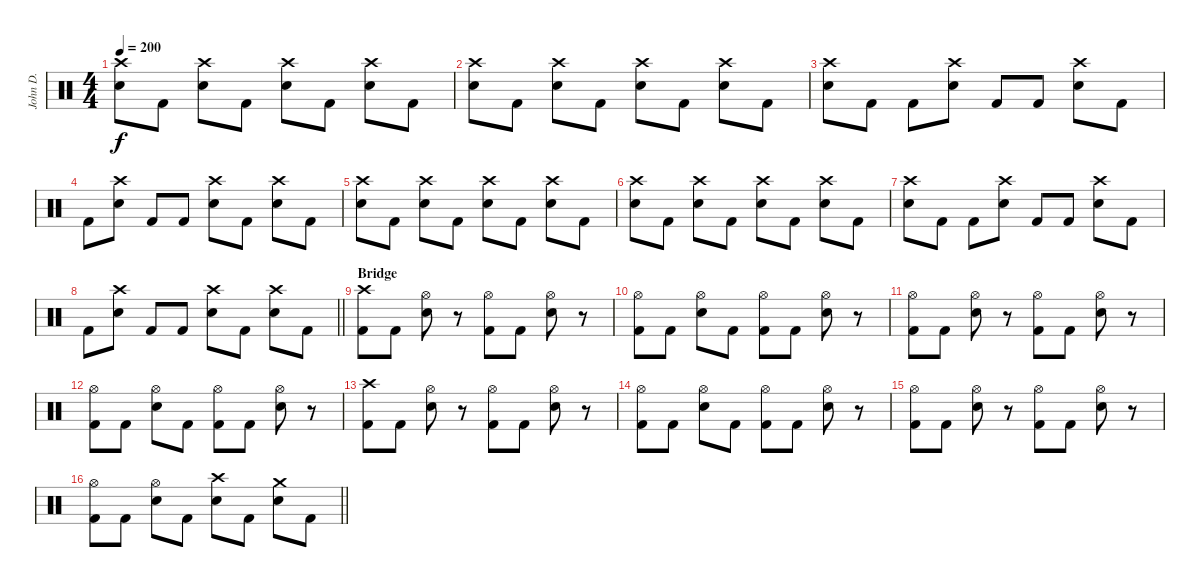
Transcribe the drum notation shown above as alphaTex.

\track ("John D." "John D.") {instrument percussion}
\staff {score}
\articulation defaults
\ts (4 4)
\tempo 200
\clef neutral
\ks c
("Crash high (hit)" "Snare (hit) 2").8{dy f} "Kick (hit) 2".8 ("Crash high (hit)" "Snare (hit) 2").8 "Kick (hit) 2".8 ("Crash high (hit)" "Snare (hit) 2").8 "Kick (hit) 2".8 ("Crash high (hit)" "Snare (hit) 2").8 "Kick (hit) 2".8 |
("Crash high (hit)" "Snare (hit) 2").8 "Kick (hit) 2".8 ("Crash high (hit)" "Snare (hit) 2").8 "Kick (hit) 2".8 ("Crash high (hit)" "Snare (hit) 2").8 "Kick (hit) 2".8 ("Crash high (hit)" "Snare (hit) 2").8 "Kick (hit) 2".8 |
("Crash high (hit)" "Snare (hit) 2").8 "Kick (hit) 2".8 "Kick (hit) 2".8 ("Crash high (hit)" "Snare (hit) 2").8 "Kick (hit) 2".8 "Kick (hit) 2".8 ("Crash high (hit)" "Snare (hit) 2").8 "Kick (hit) 2".8 |
"Kick (hit) 2".8 ("Crash high (hit)" "Snare (hit) 2").8 "Kick (hit) 2".8 "Kick (hit) 2".8 ("Crash high (hit)" "Snare (hit) 2").8 "Kick (hit) 2".8 ("Crash high (hit)" "Snare (hit) 2").8 "Kick (hit) 2".8 |
("Crash high (hit)" "Snare (hit) 2").8 "Kick (hit) 2".8 ("Crash high (hit)" "Snare (hit) 2").8 "Kick (hit) 2".8 ("Crash high (hit)" "Snare (hit) 2").8 "Kick (hit) 2".8 ("Crash high (hit)" "Snare (hit) 2").8 "Kick (hit) 2".8 |
("Crash high (hit)" "Snare (hit) 2").8 "Kick (hit) 2".8 ("Crash high (hit)" "Snare (hit) 2").8 "Kick (hit) 2".8 ("Crash high (hit)" "Snare (hit) 2").8 "Kick (hit) 2".8 ("Crash high (hit)" "Snare (hit) 2").8 "Kick (hit) 2".8 |
("Crash high (hit)" "Snare (hit) 2").8 "Kick (hit) 2".8 "Kick (hit) 2".8 ("Crash high (hit)" "Snare (hit) 2").8 "Kick (hit) 2".8 "Kick (hit) 2".8 ("Crash high (hit)" "Snare (hit) 2").8 "Kick (hit) 2".8 |
\barLineRight lightlight "Kick (hit) 2".8
("Crash high (hit)" "Snare (hit) 2").8 "Kick (hit) 2".8 "Kick (hit) 2".8 ("Crash high (hit)" "Snare (hit) 2").8 "Kick (hit) 2".8 ("Crash high (hit)" "Snare (hit) 2").8 "Kick (hit) 2".8 |
\section ("" "Bridge")
("Crash high (hit)" "Kick (hit) 2").8 "Kick (hit) 2".8 ("Hi-Hat (open)" "Snare (hit) 2").8 r.8 ("Hi-Hat (open)" "Kick (hit) 2").8 "Kick (hit) 2".8 ("Hi-Hat (open)" "Snare (hit) 2").8 r.8 |
("Hi-Hat (open)" "Kick (hit) 2").8 "Kick (hit) 2".8 ("Hi-Hat (open)" "Snare (hit) 2").8 "Kick (hit) 2".8 ("Hi-Hat (open)" "Kick (hit) 2").8 "Kick (hit) 2".8 ("Hi-Hat (open)" "Snare (hit) 2").8 r.8 |
("Hi-Hat (open)" "Kick (hit) 2").8 "Kick (hit) 2".8 ("Hi-Hat (open)" "Snare (hit) 2").8 r.8 ("Hi-Hat (open)" "Kick (hit) 2").8 "Kick (hit) 2".8 ("Hi-Hat (open)" "Snare (hit) 2").8 r.8 |
("Hi-Hat (open)" "Kick (hit) 2").8 "Kick (hit) 2".8 ("Hi-Hat (open)" "Snare (hit) 2").8 "Kick (hit) 2".8 ("Hi-Hat (open)" "Kick (hit) 2").8 "Kick (hit) 2".8 ("Hi-Hat (open)" "Snare (hit) 2").8 r.8 |
("Crash high (hit)" "Kick (hit) 2").8 "Kick (hit) 2".8 ("Hi-Hat (open)" "Snare (hit) 2").8 r.8 ("Hi-Hat (open)" "Kick (hit) 2").8 "Kick (hit) 2".8 ("Hi-Hat (open)" "Snare (hit) 2").8 r.8 |
("Hi-Hat (open)" "Kick (hit) 2").8 "Kick (hit) 2".8 ("Hi-Hat (open)" "Snare (hit) 2").8 "Kick (hit) 2".8 ("Hi-Hat (open)" "Kick (hit) 2").8 "Kick (hit) 2".8 ("Hi-Hat (open)" "Snare (hit) 2").8 r.8 |
("Hi-Hat (open)" "Kick (hit) 2").8 "Kick (hit) 2".8 ("Hi-Hat (open)" "Snare (hit) 2").8 r.8 ("Hi-Hat (open)" "Kick (hit) 2").8 "Kick (hit) 2".8 ("Hi-Hat (open)" "Snare (hit) 2").8 r.8 |
\barLineRight lightlight
("Hi-Hat (open)" "Kick (hit) 2").8 "Kick (hit) 2".8 ("Hi-Hat (open)" "Snare (hit) 2").8 "Kick (hit) 2".8 ("Crash high (hit)" "Snare (hit) 2").8 "Kick (hit) 2".8 ("Crash medium (hit)" "Snare (hit) 2").8 "Kick (hit) 2".8
